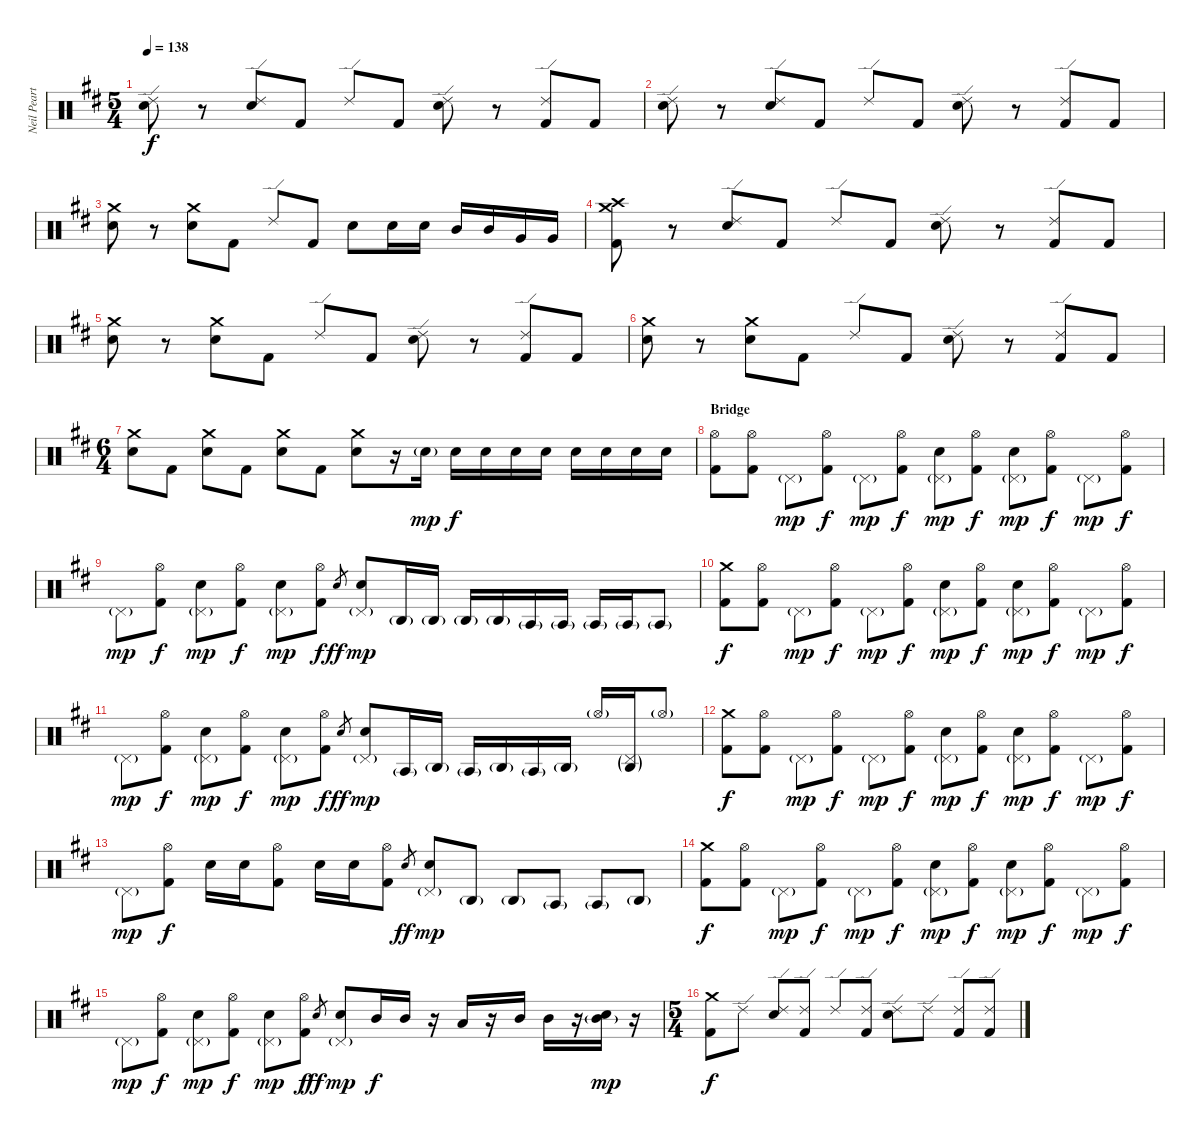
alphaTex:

\track ("Neil Peart" "Neil Peart") {instrument percussion}
\staff {score}
\articulation defaults
\ts (5 4)
\tempo 138
\clef neutral
\ks d
("Ride (edge) 2" "Electric Snare (hit)").8{dy f} r.8 ("Ride (edge) 2" "Electric Snare (hit)").8 "Kick (hit) 2".8 "Ride (edge) 2".8 "Kick (hit) 2".8 ("Ride (edge) 2" "Electric Snare (hit)").8 r.8 ("Ride (edge) 2" "Kick (hit) 2").8 "Kick (hit) 2".8 |
("Ride (edge) 2" "Electric Snare (hit)").8 r.8 ("Ride (edge) 2" "Electric Snare (hit)").8 "Kick (hit) 2".8 "Ride (edge) 2".8 "Kick (hit) 2".8 ("Ride (edge) 2" "Electric Snare (hit)").8 r.8 ("Ride (edge) 2" "Kick (hit) 2").8 "Kick (hit) 2".8 |
("Crash medium (hit)" "Electric Snare (hit)").8 r.8 ("Crash medium (hit)" "Electric Snare (hit)").8 "Kick (hit) 2".8 "Ride (edge) 2".8 "Kick (hit) 2".8 "Electric Snare (hit)".8 "Electric Snare (hit)".16 "Electric Snare (hit)".16 "Mid Tom (hit)".16 "Mid Tom (hit)".16 "Very Low Tom (hit)".16 "Very Low Tom (hit)".16 |
("Crash medium (hit)" "Crash high (hit)" "Kick (hit) 2").8 r.8 ("Ride (edge) 2" "Electric Snare (hit)").8 "Kick (hit) 2".8 "Ride (edge) 2".8 "Kick (hit) 2".8 ("Ride (edge) 2" "Electric Snare (hit)").8 r.8 ("Ride (edge) 2" "Kick (hit) 2").8 "Kick (hit) 2".8 |
("Crash medium (hit)" "Electric Snare (hit)").8 r.8 ("Crash medium (hit)" "Electric Snare (hit)").8 "Kick (hit) 2".8 "Ride (edge) 2".8 "Kick (hit) 2".8 ("Ride (edge) 2" "Electric Snare (hit)").8 r.8 ("Ride (edge) 2" "Kick (hit) 2").8 "Kick (hit) 2".8 |
("Crash medium (hit)" "Electric Snare (hit)").8 r.8 ("Crash medium (hit)" "Electric Snare (hit)").8 "Kick (hit) 2".8 "Ride (edge) 2".8 "Kick (hit) 2".8 ("Ride (edge) 2" "Electric Snare (hit)").8 r.8 ("Ride (edge) 2" "Kick (hit) 2").8 "Kick (hit) 2".8 |
\ts (6 4)
("Crash medium (hit)" "Electric Snare (hit)").8 "Kick (hit) 2".8 ("Crash medium (hit)" "Electric Snare (hit)").8 "Kick (hit) 2".8 ("Crash medium (hit)" "Electric Snare (hit)").8 "Kick (hit) 2".8 ("Crash medium (hit)" "Electric Snare (hit)").8 r.16 "Electric Snare (hit)"{g}.16{dy mp} "Electric Snare (hit)".16{dy f} "Electric Snare (hit)".16 "Electric Snare (hit)".16 "Electric Snare (hit)".16 "Electric Snare (hit)".16 "Electric Snare (hit)".16 "Electric Snare (hit)".16 "Electric Snare (hit)".16 |
\section ("" "Bridge")
("Hi-Hat (open)" "Kick (hit) 2").8 ("Hi-Hat (open)" "Kick (hit) 2").8 "Pedal Hi-Hat (hit)"{g}.8{dy mp} ("Hi-Hat (open)" "Kick (hit) 2").8{dy f} "Pedal Hi-Hat (hit)"{g}.8{dy mp} ("Hi-Hat (open)" "Kick (hit) 2").8{dy f} ("Electric Snare (hit)" "Pedal Hi-Hat (hit)"{g}).8{dy mp} ("Hi-Hat (open)" "Kick (hit) 2").8{dy f} ("Electric Snare (hit)" "Pedal Hi-Hat (hit)"{g}).8{dy mp} ("Hi-Hat (open)" "Kick (hit) 2").8{dy f} "Pedal Hi-Hat (hit)"{g}.8{dy mp} ("Hi-Hat (open)" "Kick (hit) 2").8{dy f} |
"Pedal Hi-Hat (hit)"{g}.8{dy mp} ("Hi-Hat (open)" "Kick (hit) 2").8{dy f} ("Electric Snare (hit)" "Pedal Hi-Hat (hit)"{g}).8{dy mp} ("Hi-Hat (open)" "Kick (hit) 2").8{dy f} ("Electric Snare (hit)" "Pedal Hi-Hat (hit)"{g}).8{dy mp} ("Hi-Hat (open)" "Kick (hit) 2").8{dy f} "Electric Snare (hit)".8{gr dy ff} ("Electric Snare (hit)" "Pedal Hi-Hat (hit)"{g}).8{dy mp} "Agogo high (hit)"{g}.16 "Agogo high (hit)"{g}.16 "Agogo high (hit)"{g}.16 "Agogo high (hit)"{g}.16 "Agogo tow (hit)"{g}.16 "Agogo tow (hit)"{g}.16 "Agogo tow (hit)"{g}.16 "Agogo tow (hit)"{g}.16 "Agogo tow (hit)"{g}.8 |
("Crash medium (hit)" "Kick (hit) 2").8{dy f} ("Hi-Hat (open)" "Kick (hit) 2").8 "Pedal Hi-Hat (hit)"{g}.8{dy mp} ("Hi-Hat (open)" "Kick (hit) 2").8{dy f} "Pedal Hi-Hat (hit)"{g}.8{dy mp} ("Hi-Hat (open)" "Kick (hit) 2").8{dy f} ("Electric Snare (hit)" "Pedal Hi-Hat (hit)"{g}).8{dy mp} ("Hi-Hat (open)" "Kick (hit) 2").8{dy f} ("Electric Snare (hit)" "Pedal Hi-Hat (hit)"{g}).8{dy mp} ("Hi-Hat (open)" "Kick (hit) 2").8{dy f} "Pedal Hi-Hat (hit)"{g}.8{dy mp} ("Hi-Hat (open)" "Kick (hit) 2").8{dy f} |
"Pedal Hi-Hat (hit)"{g}.8{dy mp} ("Hi-Hat (open)" "Kick (hit) 2").8{dy f} ("Pedal Hi-Hat (hit)"{g} "Electric Snare (hit)").8{dy mp} ("Hi-Hat (open)" "Kick (hit) 2").8{dy f} ("Pedal Hi-Hat (hit)"{g} "Electric Snare (hit)").8{dy mp} ("Hi-Hat (open)" "Kick (hit) 2").8{dy f} "Electric Snare (hit)".8{gr dy ff} ("Pedal Hi-Hat (hit)"{g} "Electric Snare (hit)").8{dy mp} "Agogo tow (hit)"{g}.16 "Agogo high (hit)"{g}.16 "Agogo tow (hit)"{g}.16 "Agogo high (hit)"{g}.16 "Agogo tow (hit)"{g}.16 "Agogo high (hit)"{g}.16 "Hi-Hat (open)"{g}.16 ("Agogo high (hit)"{g} "Pedal Hi-Hat (hit)"{g}).16 "Hi-Hat (open)"{g}.8 |
("Crash medium (hit)" "Kick (hit) 2").8{dy f} ("Hi-Hat (open)" "Kick (hit) 2").8 "Pedal Hi-Hat (hit)"{g}.8{dy mp} ("Hi-Hat (open)" "Kick (hit) 2").8{dy f} "Pedal Hi-Hat (hit)"{g}.8{dy mp} ("Hi-Hat (open)" "Kick (hit) 2").8{dy f} ("Pedal Hi-Hat (hit)"{g} "Electric Snare (hit)").8{dy mp} ("Hi-Hat (open)" "Kick (hit) 2").8{dy f} ("Pedal Hi-Hat (hit)"{g} "Electric Snare (hit)").8{dy mp} ("Hi-Hat (open)" "Kick (hit) 2").8{dy f} "Pedal Hi-Hat (hit)"{g}.8{dy mp} ("Hi-Hat (open)" "Kick (hit) 2").8{dy f} |
"Pedal Hi-Hat (hit)"{g}.8{dy mp} ("Hi-Hat (open)" "Kick (hit) 2").8{dy f} "Electric Snare (hit)".16 "Electric Snare (hit)".16 ("Hi-Hat (open)" "Kick (hit) 2").8 "Electric Snare (hit)".16 "Electric Snare (hit)".16 ("Hi-Hat (open)" "Kick (hit) 2").8 "Electric Snare (hit)".8{gr dy ff} ("Pedal Hi-Hat (hit)"{g} "Electric Snare (hit)").8{dy mp} "Agogo high (hit)"{g}.8 "Agogo high (hit)"{g}.8 "Agogo tow (hit)"{g}.8 "Agogo tow (hit)"{g}.8 "Agogo high (hit)"{g}.8 |
("Crash medium (hit)" "Kick (hit) 2").8{dy f} ("Hi-Hat (open)" "Kick (hit) 2").8 "Pedal Hi-Hat (hit)"{g}.8{dy mp} ("Hi-Hat (open)" "Kick (hit) 2").8{dy f} "Pedal Hi-Hat (hit)"{g}.8{dy mp} ("Hi-Hat (open)" "Kick (hit) 2").8{dy f} ("Electric Snare (hit)" "Pedal Hi-Hat (hit)"{g}).8{dy mp} ("Hi-Hat (open)" "Kick (hit) 2").8{dy f} ("Electric Snare (hit)" "Pedal Hi-Hat (hit)"{g}).8{dy mp} ("Hi-Hat (open)" "Kick (hit) 2").8{dy f} "Pedal Hi-Hat (hit)"{g}.8{dy mp} ("Hi-Hat (open)" "Kick (hit) 2").8{dy f} |
"Pedal Hi-Hat (hit)"{g}.8{dy mp} ("Hi-Hat (open)" "Kick (hit) 2").8{dy f} ("Pedal Hi-Hat (hit)"{g} "Electric Snare (hit)").8{dy mp} ("Hi-Hat (open)" "Kick (hit) 2").8{dy f} ("Pedal Hi-Hat (hit)"{g} "Electric Snare (hit)").8{dy mp} ("Hi-Hat (open)" "Kick (hit) 2").8{dy f} "Electric Snare (hit)".8{gr dy ff} ("Pedal Hi-Hat (hit)"{g} "Electric Snare (hit)").8{dy mp} "Mid Tom (hit)".16{dy f} "Mid Tom (hit)".16 r.16 "Low Tom (hit)".16 r.16 "Mid Tom (hit)".16 "Mid Tom (hit)".16 r.16 ("Mid Tom (hit)"{g} "Electric Snare (hit)").16{dy mp} r.16 |
\ts (5 4)
("Crash medium (hit)" "Kick (hit) 2").8{dy f} "Ride (edge) 2".8 ("Ride (edge) 2" "Electric Snare (hit)").8 ("Ride (edge) 2" "Kick (hit) 2").8 "Ride (edge) 2".8 ("Ride (edge) 2" "Kick (hit) 2").8 ("Ride (edge) 2" "Electric Snare (hit)").8 "Ride (edge) 2".8 ("Ride (edge) 2" "Kick (hit) 2").8 ("Ride (edge) 2" "Kick (hit) 2").8
